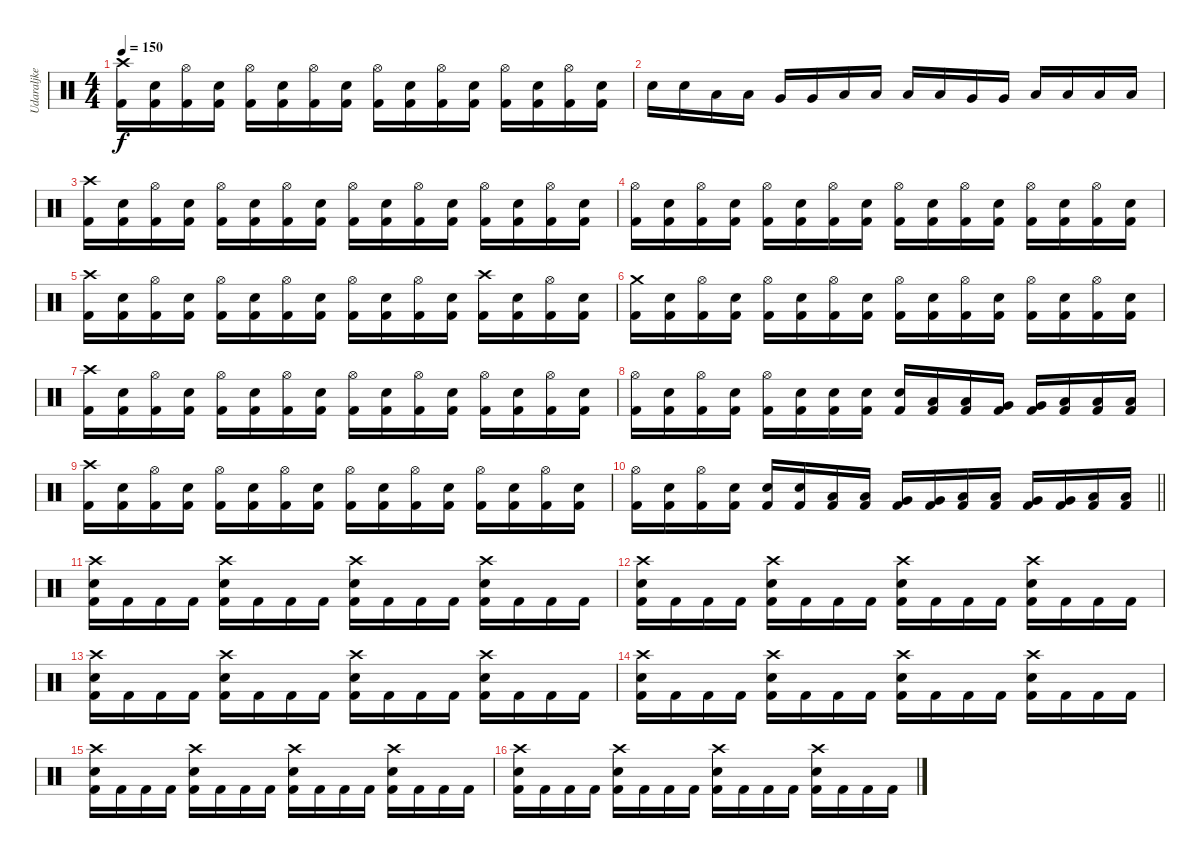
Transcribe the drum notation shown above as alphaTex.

\track ("Udaraljke" "Udaraljke") {instrument percussion}
\staff {score}
\articulation defaults
\ts (4 4)
\tempo 150
\clef neutral
\ks c
("Crash high (hit)" "Kick (hit) 2").16{dy f} ("Electric Snare (hit)" "Kick (hit) 2").16 ("Hi-Hat (open)" "Kick (hit) 2").16 ("Electric Snare (hit)" "Kick (hit) 2").16 ("Hi-Hat (open)" "Kick (hit) 2").16 ("Electric Snare (hit)" "Kick (hit) 2").16 ("Hi-Hat (open)" "Kick (hit) 2").16 ("Electric Snare (hit)" "Kick (hit) 2").16 ("Hi-Hat (open)" "Kick (hit) 2").16 ("Electric Snare (hit)" "Kick (hit) 2").16 ("Hi-Hat (open)" "Kick (hit) 2").16 ("Electric Snare (hit)" "Kick (hit) 2").16 ("Hi-Hat (open)" "Kick (hit) 2").16 ("Electric Snare (hit)" "Kick (hit) 2").16 ("Hi-Hat (open)" "Kick (hit) 2").16 ("Electric Snare (hit)" "Kick (hit) 2").16 |
"Electric Snare (hit)".16 "Electric Snare (hit)".16 "Low Floor Tom (hit)".16 "Low Floor Tom (hit)".16 "Very Low Tom (hit)".16 "Very Low Tom (hit)".16 "Low Tom (hit)".16 "Low Tom (hit)".16 "Low Floor Tom (hit)".16 "Low Floor Tom (hit)".16 "Very Low Tom (hit)".16 "Very Low Tom (hit)".16 "Low Tom (hit)".16 "Low Tom (hit)".16 "Low Tom (hit)".16 "Low Tom (hit)".16 |
("Crash high (hit)" "Kick (hit) 2").16 ("Electric Snare (hit)" "Kick (hit) 2").16 ("Hi-Hat (open)" "Kick (hit) 2").16 ("Electric Snare (hit)" "Kick (hit) 2").16 ("Hi-Hat (open)" "Kick (hit) 2").16 ("Electric Snare (hit)" "Kick (hit) 2").16 ("Hi-Hat (open)" "Kick (hit) 2").16 ("Electric Snare (hit)" "Kick (hit) 2").16 ("Hi-Hat (open)" "Kick (hit) 2").16 ("Electric Snare (hit)" "Kick (hit) 2").16 ("Hi-Hat (open)" "Kick (hit) 2").16 ("Electric Snare (hit)" "Kick (hit) 2").16 ("Hi-Hat (open)" "Kick (hit) 2").16 ("Electric Snare (hit)" "Kick (hit) 2").16 ("Hi-Hat (open)" "Kick (hit) 2").16 ("Electric Snare (hit)" "Kick (hit) 2").16 |
("Hi-Hat (open)" "Kick (hit) 2").16 ("Electric Snare (hit)" "Kick (hit) 2").16 ("Hi-Hat (open)" "Kick (hit) 2").16 ("Electric Snare (hit)" "Kick (hit) 2").16 ("Hi-Hat (open)" "Kick (hit) 2").16 ("Electric Snare (hit)" "Kick (hit) 2").16 ("Hi-Hat (open)" "Kick (hit) 2").16 ("Electric Snare (hit)" "Kick (hit) 2").16 ("Hi-Hat (open)" "Kick (hit) 2").16 ("Electric Snare (hit)" "Kick (hit) 2").16 ("Hi-Hat (open)" "Kick (hit) 2").16 ("Electric Snare (hit)" "Kick (hit) 2").16 ("Hi-Hat (open)" "Kick (hit) 2").16 ("Electric Snare (hit)" "Kick (hit) 2").16 ("Hi-Hat (open)" "Kick (hit) 2").16 ("Electric Snare (hit)" "Kick (hit) 2").16 |
("Crash high (hit)" "Kick (hit) 2").16 ("Electric Snare (hit)" "Kick (hit) 2").16 ("Hi-Hat (open)" "Kick (hit) 2").16 ("Electric Snare (hit)" "Kick (hit) 2").16 ("Hi-Hat (open)" "Kick (hit) 2").16 ("Electric Snare (hit)" "Kick (hit) 2").16 ("Hi-Hat (open)" "Kick (hit) 2").16 ("Electric Snare (hit)" "Kick (hit) 2").16 ("Hi-Hat (open)" "Kick (hit) 2").16 ("Electric Snare (hit)" "Kick (hit) 2").16 ("Hi-Hat (open)" "Kick (hit) 2").16 ("Electric Snare (hit)" "Kick (hit) 2").16 ("Crash high (hit)" "Kick (hit) 2").16 ("Electric Snare (hit)" "Kick (hit) 2").16 ("Hi-Hat (open)" "Kick (hit) 2").16 ("Electric Snare (hit)" "Kick (hit) 2").16 |
("Crash medium (hit)" "Kick (hit) 2").16 ("Electric Snare (hit)" "Kick (hit) 2").16 ("Hi-Hat (open)" "Kick (hit) 2").16 ("Electric Snare (hit)" "Kick (hit) 2").16 ("Hi-Hat (open)" "Kick (hit) 2").16 ("Electric Snare (hit)" "Kick (hit) 2").16 ("Hi-Hat (open)" "Kick (hit) 2").16 ("Electric Snare (hit)" "Kick (hit) 2").16 ("Hi-Hat (open)" "Kick (hit) 2").16 ("Electric Snare (hit)" "Kick (hit) 2").16 ("Hi-Hat (open)" "Kick (hit) 2").16 ("Electric Snare (hit)" "Kick (hit) 2").16 ("Hi-Hat (open)" "Kick (hit) 2").16 ("Electric Snare (hit)" "Kick (hit) 2").16 ("Hi-Hat (open)" "Kick (hit) 2").16 ("Electric Snare (hit)" "Kick (hit) 2").16 |
("Crash high (hit)" "Kick (hit) 2").16 ("Electric Snare (hit)" "Kick (hit) 2").16 ("Hi-Hat (open)" "Kick (hit) 2").16 ("Electric Snare (hit)" "Kick (hit) 2").16 ("Hi-Hat (open)" "Kick (hit) 2").16 ("Electric Snare (hit)" "Kick (hit) 2").16 ("Hi-Hat (open)" "Kick (hit) 2").16 ("Electric Snare (hit)" "Kick (hit) 2").16 ("Hi-Hat (open)" "Kick (hit) 2").16 ("Electric Snare (hit)" "Kick (hit) 2").16 ("Hi-Hat (open)" "Kick (hit) 2").16 ("Electric Snare (hit)" "Kick (hit) 2").16 ("Hi-Hat (open)" "Kick (hit) 2").16 ("Electric Snare (hit)" "Kick (hit) 2").16 ("Hi-Hat (open)" "Kick (hit) 2").16 ("Electric Snare (hit)" "Kick (hit) 2").16 |
("Hi-Hat (open)" "Kick (hit) 2").16 ("Electric Snare (hit)" "Kick (hit) 2").16 ("Hi-Hat (open)" "Kick (hit) 2").16 ("Electric Snare (hit)" "Kick (hit) 2").16 ("Hi-Hat (open)" "Kick (hit) 2").16 ("Electric Snare (hit)" "Kick (hit) 2").16 ("Electric Snare (hit)" "Kick (hit) 2").16 ("Electric Snare (hit)" "Kick (hit) 2").16 ("Electric Snare (hit)" "Kick (hit) 2").16 ("Low Floor Tom (hit)" "Kick (hit) 2").16 ("Low Floor Tom (hit)" "Kick (hit) 2").16 ("Very Low Tom (hit)" "Kick (hit) 2").16 ("Very Low Tom (hit)" "Kick (hit) 2").16 ("Low Tom (hit)" "Kick (hit) 2").16 ("Low Tom (hit)" "Kick (hit) 2").16 ("Low Tom (hit)" "Kick (hit) 2").16 |
("Crash high (hit)" "Kick (hit) 2").16 ("Electric Snare (hit)" "Kick (hit) 2").16 ("Hi-Hat (open)" "Kick (hit) 2").16 ("Electric Snare (hit)" "Kick (hit) 2").16 ("Hi-Hat (open)" "Kick (hit) 2").16 ("Electric Snare (hit)" "Kick (hit) 2").16 ("Hi-Hat (open)" "Kick (hit) 2").16 ("Electric Snare (hit)" "Kick (hit) 2").16 ("Hi-Hat (open)" "Kick (hit) 2").16 ("Electric Snare (hit)" "Kick (hit) 2").16 ("Hi-Hat (open)" "Kick (hit) 2").16 ("Electric Snare (hit)" "Kick (hit) 2").16 ("Hi-Hat (open)" "Kick (hit) 2").16 ("Electric Snare (hit)" "Kick (hit) 2").16 ("Hi-Hat (open)" "Kick (hit) 2").16 ("Electric Snare (hit)" "Kick (hit) 2").16 |
\barLineRight lightlight
("Hi-Hat (open)" "Kick (hit) 2").16 ("Electric Snare (hit)" "Kick (hit) 2").16 ("Hi-Hat (open)" "Kick (hit) 2").16 ("Electric Snare (hit)" "Kick (hit) 2").16 ("Electric Snare (hit)" "Kick (hit) 2").16 ("Electric Snare (hit)" "Kick (hit) 2").16 ("Low Floor Tom (hit)" "Kick (hit) 2").16 ("Low Floor Tom (hit)" "Kick (hit) 2").16 ("Very Low Tom (hit)" "Kick (hit) 2").16 ("Very Low Tom (hit)" "Kick (hit) 2").16 ("Low Floor Tom (hit)" "Kick (hit) 2").16 ("Low Floor Tom (hit)" "Kick (hit) 2").16 ("Very Low Tom (hit)" "Kick (hit) 2").16 ("Very Low Tom (hit)" "Kick (hit) 2").16 ("Low Tom (hit)" "Kick (hit) 2").16 ("Low Tom (hit)" "Kick (hit) 2").16 |
\section ("" "")
("Crash high (hit)" "Electric Snare (hit)" "Kick (hit) 2").16 "Kick (hit) 2".16 "Kick (hit) 2".16 "Kick (hit) 2".16 ("Crash high (hit)" "Electric Snare (hit)" "Kick (hit) 2").16 "Kick (hit) 2".16 "Kick (hit) 2".16 "Kick (hit) 2".16 ("Crash high (hit)" "Electric Snare (hit)" "Kick (hit) 2").16 "Kick (hit) 2".16 "Kick (hit) 2".16 "Kick (hit) 2".16 ("Crash high (hit)" "Electric Snare (hit)" "Kick (hit) 2").16 "Kick (hit) 2".16 "Kick (hit) 2".16 "Kick (hit) 2".16 |
("Crash high (hit)" "Electric Snare (hit)" "Kick (hit) 2").16 "Kick (hit) 2".16 "Kick (hit) 2".16 "Kick (hit) 2".16 ("Crash high (hit)" "Electric Snare (hit)" "Kick (hit) 2").16 "Kick (hit) 2".16 "Kick (hit) 2".16 "Kick (hit) 2".16 ("Crash high (hit)" "Electric Snare (hit)" "Kick (hit) 2").16 "Kick (hit) 2".16 "Kick (hit) 2".16 "Kick (hit) 2".16 ("Crash high (hit)" "Electric Snare (hit)" "Kick (hit) 2").16 "Kick (hit) 2".16 "Kick (hit) 2".16 "Kick (hit) 2".16 |
("Crash high (hit)" "Electric Snare (hit)" "Kick (hit) 2").16 "Kick (hit) 2".16 "Kick (hit) 2".16 "Kick (hit) 2".16 ("Crash high (hit)" "Electric Snare (hit)" "Kick (hit) 2").16 "Kick (hit) 2".16 "Kick (hit) 2".16 "Kick (hit) 2".16 ("Crash high (hit)" "Electric Snare (hit)" "Kick (hit) 2").16 "Kick (hit) 2".16 "Kick (hit) 2".16 "Kick (hit) 2".16 ("Crash high (hit)" "Electric Snare (hit)" "Kick (hit) 2").16 "Kick (hit) 2".16 "Kick (hit) 2".16 "Kick (hit) 2".16 |
("Crash high (hit)" "Electric Snare (hit)" "Kick (hit) 2").16 "Kick (hit) 2".16 "Kick (hit) 2".16 "Kick (hit) 2".16 ("Crash high (hit)" "Electric Snare (hit)" "Kick (hit) 2").16 "Kick (hit) 2".16 "Kick (hit) 2".16 "Kick (hit) 2".16 ("Crash high (hit)" "Electric Snare (hit)" "Kick (hit) 2").16 "Kick (hit) 2".16 "Kick (hit) 2".16 "Kick (hit) 2".16 ("Crash high (hit)" "Electric Snare (hit)" "Kick (hit) 2").16 "Kick (hit) 2".16 "Kick (hit) 2".16 "Kick (hit) 2".16 |
("Crash high (hit)" "Electric Snare (hit)" "Kick (hit) 2").16 "Kick (hit) 2".16 "Kick (hit) 2".16 "Kick (hit) 2".16 ("Crash high (hit)" "Electric Snare (hit)" "Kick (hit) 2").16 "Kick (hit) 2".16 "Kick (hit) 2".16 "Kick (hit) 2".16 ("Crash high (hit)" "Electric Snare (hit)" "Kick (hit) 2").16 "Kick (hit) 2".16 "Kick (hit) 2".16 "Kick (hit) 2".16 ("Crash high (hit)" "Electric Snare (hit)" "Kick (hit) 2").16 "Kick (hit) 2".16 "Kick (hit) 2".16 "Kick (hit) 2".16 |
("Crash high (hit)" "Electric Snare (hit)" "Kick (hit) 2").16 "Kick (hit) 2".16 "Kick (hit) 2".16 "Kick (hit) 2".16 ("Crash high (hit)" "Electric Snare (hit)" "Kick (hit) 2").16 "Kick (hit) 2".16 "Kick (hit) 2".16 "Kick (hit) 2".16 ("Crash high (hit)" "Electric Snare (hit)" "Kick (hit) 2").16 "Kick (hit) 2".16 "Kick (hit) 2".16 "Kick (hit) 2".16 ("Crash high (hit)" "Electric Snare (hit)" "Kick (hit) 2").16 "Kick (hit) 2".16 "Kick (hit) 2".16 "Kick (hit) 2".16
